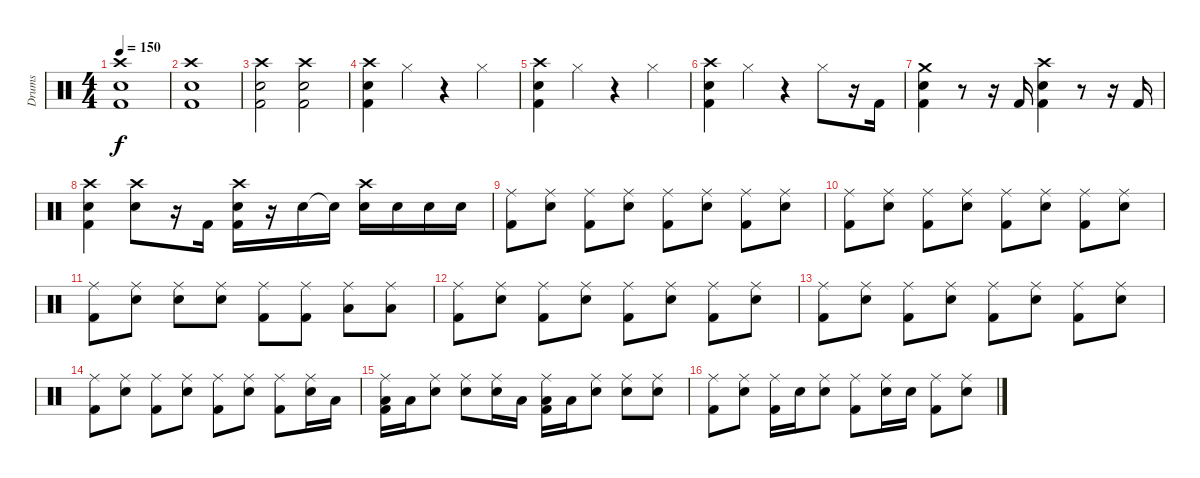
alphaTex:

\track ("Drums" "Drums") {instrument percussion}
\staff {score}
\articulation defaults
\ts (4 4)
\tempo 150
\clef neutral
\ks c
("Crash high (hit)" "Snare (hit) 2" "Kick (hit) 2").1{dy f} |
("Crash high (hit)" "Snare (hit) 2" "Kick (hit) 2").1 |
("Crash high (hit)" "Snare (hit) 2" "Kick (hit) 2").2 ("Crash high (hit)" "Snare (hit) 2" "Kick (hit) 2").2 |
("Crash high (hit)" "Snare (hit) 2" "Kick (hit) 2").4 "Hi-Hat (closed)".4 r.4 "Hi-Hat (closed)".4 |
("Crash high (hit)" "Snare (hit) 2" "Kick (hit) 2").4 "Hi-Hat (closed)".4 r.4 "Hi-Hat (closed)".4 |
("Crash high (hit)" "Snare (hit) 2" "Kick (hit) 2").4 "Hi-Hat (closed)".4 r.4 "Hi-Hat (closed)".8 r.16 "Kick (hit) 2".16 |
("Crash medium (hit)" "Snare (hit) 2" "Kick (hit) 2").4 r.8 r.16 "Kick (hit) 2".16 ("Crash high (hit)" "Snare (hit) 2" "Kick (hit) 2").4 r.8 r.16 "Kick (hit) 2".16 |
("Crash high (hit)" "Snare (hit) 2" "Kick (hit) 2").4 ("Crash high (hit)" "Snare (hit) 2").8 r.16 "Kick (hit) 2".16 ("Crash high (hit)" "Snare (hit) 2" "Kick (hit) 2").16 r.16 "Snare (hit) 2".16 "Snare (hit) 2"{t}.16 ("Crash high (hit)" "Snare (hit) 2").16 "Snare (hit) 2".16 "Snare (hit) 2".16 "Snare (hit) 2".16 |
("Ride (middle)" "Kick (hit) 2").8 ("Ride (middle)" "Snare (hit) 2").8 ("Ride (middle)" "Kick (hit) 2").8 ("Ride (middle)" "Snare (hit) 2").8 ("Ride (middle)" "Kick (hit) 2").8 ("Ride (middle)" "Snare (hit) 2").8 ("Ride (middle)" "Kick (hit) 2").8 ("Ride (middle)" "Snare (hit) 2").8 |
("Ride (middle)" "Kick (hit) 2").8 ("Ride (middle)" "Snare (hit) 2").8 ("Ride (middle)" "Kick (hit) 2").8 ("Ride (middle)" "Snare (hit) 2").8 ("Ride (middle)" "Kick (hit) 2").8 ("Ride (middle)" "Snare (hit) 2").8 ("Ride (middle)" "Kick (hit) 2").8 ("Ride (middle)" "Snare (hit) 2").8 |
("Ride (middle)" "Kick (hit) 2").8 ("Ride (middle)" "Snare (hit) 2").8 ("Ride (middle)" "Snare (hit) 2").8 ("Ride (middle)" "Snare (hit) 2").8 ("Ride (middle)" "Kick (hit) 2").8 ("Ride (middle)" "Kick (hit) 2").8 ("Ride (middle)" "Low Floor Tom (hit)").8 ("Ride (middle)" "Low Floor Tom (hit)").8 |
("Ride (middle)" "Kick (hit) 2").8 ("Ride (middle)" "Snare (hit) 2").8 ("Ride (middle)" "Kick (hit) 2").8 ("Ride (middle)" "Snare (hit) 2").8 ("Ride (middle)" "Kick (hit) 2").8 ("Ride (middle)" "Snare (hit) 2").8 ("Ride (middle)" "Kick (hit) 2").8 ("Ride (middle)" "Snare (hit) 2").8 |
("Ride (middle)" "Kick (hit) 2").8 ("Ride (middle)" "Snare (hit) 2").8 ("Ride (middle)" "Kick (hit) 2").8 ("Ride (middle)" "Snare (hit) 2").8 ("Ride (middle)" "Kick (hit) 2").8 ("Ride (middle)" "Snare (hit) 2").8 ("Ride (middle)" "Kick (hit) 2").8 ("Ride (middle)" "Snare (hit) 2").8 |
("Ride (middle)" "Kick (hit) 2").8 ("Ride (middle)" "Snare (hit) 2").8 ("Ride (middle)" "Kick (hit) 2").8 ("Ride (middle)" "Snare (hit) 2").8 ("Ride (middle)" "Kick (hit) 2").8 ("Ride (middle)" "Snare (hit) 2").8 ("Ride (middle)" "Kick (hit) 2").8 ("Ride (middle)" "Snare (hit) 2").16 "Low Floor Tom (hit)".16 |
("Ride (middle)" "Low Floor Tom (hit)" "Kick (hit) 2").16 "Low Floor Tom (hit)".16 ("Ride (middle)" "Snare (hit) 2").8 ("Ride (middle)" "Snare (hit) 2").8 ("Ride (middle)" "Snare (hit) 2").16 "Low Floor Tom (hit)".16 ("Ride (middle)" "Low Floor Tom (hit)" "Kick (hit) 2").16 "Low Floor Tom (hit)".16 ("Ride (middle)" "Snare (hit) 2").8 ("Ride (middle)" "Snare (hit) 2").8 ("Ride (middle)" "Snare (hit) 2").8 |
("Ride (middle)" "Kick (hit) 2").8 ("Ride (middle)" "Snare (hit) 2").8 ("Ride (middle)" "Kick (hit) 2").16 "Snare (hit) 2".16 ("Ride (middle)" "Snare (hit) 2").8 ("Ride (middle)" "Kick (hit) 2").8 ("Ride (middle)" "Snare (hit) 2").16 "Snare (hit) 2".16 ("Ride (middle)" "Kick (hit) 2").8 ("Ride (middle)" "Snare (hit) 2").8
